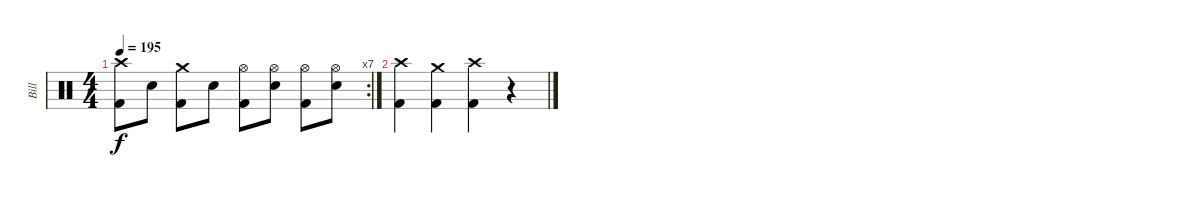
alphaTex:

\track ("Bill" "Bill") {instrument percussion}
\staff {score}
\articulation defaults
\rc 7
\ts (4 4)
\tempo 195
\clef neutral
\ks c
("Crash high (hit)" "Kick (hit) 2").8{dy f} "Electric Snare (hit)".8 ("Crash medium (hit)" "Kick (hit) 2").8 "Electric Snare (hit)".8 ("Hi-Hat (open)" "Kick (hit) 2").8 ("Hi-Hat (open)" "Electric Snare (hit)").8 ("Hi-Hat (open)" "Kick (hit) 2").8 ("Hi-Hat (open)" "Electric Snare (hit)").8 |
("Crash high (hit)" "Kick (hit) 2").4 ("Crash medium (hit)" "Kick (hit) 2").4 ("Crash high (hit)" "Kick (hit) 2").4 r.4
